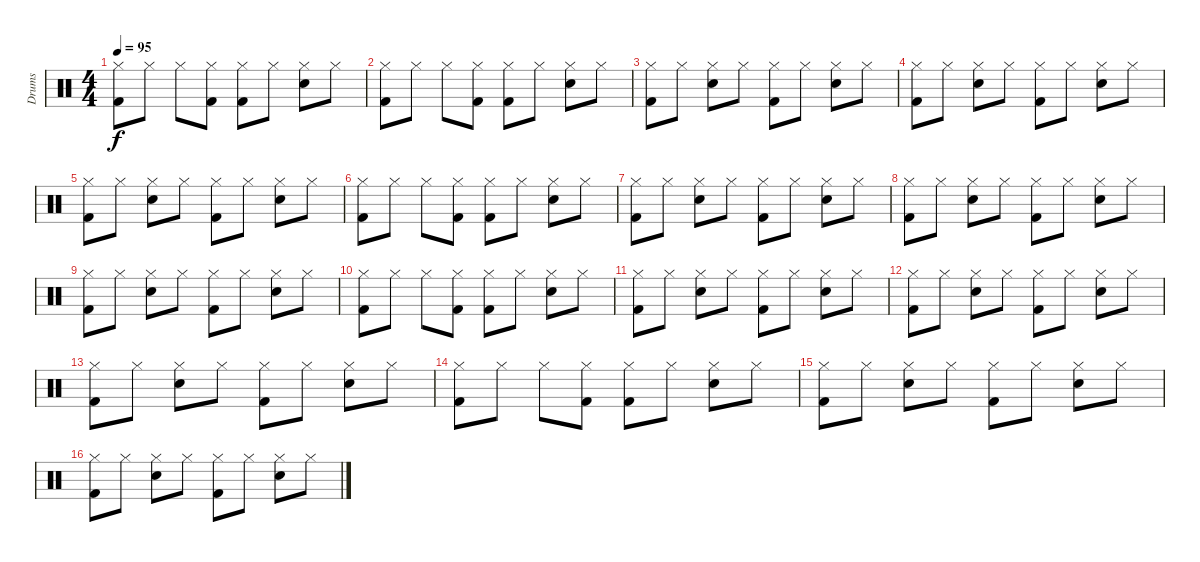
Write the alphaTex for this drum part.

\track ("Drums" "Drums") {instrument percussion}
\staff {score}
\articulation defaults
\ts (4 4)
\tempo 95
\clef neutral
\ks c
("Kick (hit) 2" "Hi-Hat (closed)").8{dy f} "Hi-Hat (closed)".8 "Hi-Hat (closed)".8 ("Kick (hit) 2" "Hi-Hat (closed)").8 ("Kick (hit) 2" "Hi-Hat (closed)").8 "Hi-Hat (closed)".8 ("Snare (hit) 2" "Hi-Hat (closed)").8 "Hi-Hat (closed)".8 |
("Kick (hit) 2" "Hi-Hat (closed)").8 "Hi-Hat (closed)".8 "Hi-Hat (closed)".8 ("Kick (hit) 2" "Hi-Hat (closed)").8 ("Kick (hit) 2" "Hi-Hat (closed)").8 "Hi-Hat (closed)".8 ("Snare (hit) 2" "Hi-Hat (closed)").8 "Hi-Hat (closed)".8 |
("Kick (hit) 2" "Hi-Hat (closed)").8 "Hi-Hat (closed)".8 ("Snare (hit) 2" "Hi-Hat (closed)").8 "Hi-Hat (closed)".8 ("Kick (hit) 2" "Hi-Hat (closed)").8 "Hi-Hat (closed)".8 ("Snare (hit) 2" "Hi-Hat (closed)").8 "Hi-Hat (closed)".8 |
("Kick (hit) 2" "Hi-Hat (closed)").8 "Hi-Hat (closed)".8 ("Snare (hit) 2" "Hi-Hat (closed)").8 "Hi-Hat (closed)".8 ("Kick (hit) 2" "Hi-Hat (closed)").8 "Hi-Hat (closed)".8 ("Snare (hit) 2" "Hi-Hat (closed)").8 "Hi-Hat (closed)".8 |
("Kick (hit) 2" "Hi-Hat (closed)").8 "Hi-Hat (closed)".8 ("Snare (hit) 2" "Hi-Hat (closed)").8 "Hi-Hat (closed)".8 ("Kick (hit) 2" "Hi-Hat (closed)").8 "Hi-Hat (closed)".8 ("Snare (hit) 2" "Hi-Hat (closed)").8 "Hi-Hat (closed)".8 |
("Kick (hit) 2" "Hi-Hat (closed)").8 "Hi-Hat (closed)".8 "Hi-Hat (closed)".8 ("Kick (hit) 2" "Hi-Hat (closed)").8 ("Kick (hit) 2" "Hi-Hat (closed)").8 "Hi-Hat (closed)".8 ("Snare (hit) 2" "Hi-Hat (closed)").8 "Hi-Hat (closed)".8 |
("Kick (hit) 2" "Hi-Hat (closed)").8 "Hi-Hat (closed)".8 ("Snare (hit) 2" "Hi-Hat (closed)").8 "Hi-Hat (closed)".8 ("Kick (hit) 2" "Hi-Hat (closed)").8 "Hi-Hat (closed)".8 ("Snare (hit) 2" "Hi-Hat (closed)").8 "Hi-Hat (closed)".8 |
("Kick (hit) 2" "Hi-Hat (closed)").8 "Hi-Hat (closed)".8 ("Snare (hit) 2" "Hi-Hat (closed)").8 "Hi-Hat (closed)".8 ("Kick (hit) 2" "Hi-Hat (closed)").8 "Hi-Hat (closed)".8 ("Snare (hit) 2" "Hi-Hat (closed)").8 "Hi-Hat (closed)".8 |
("Kick (hit) 2" "Hi-Hat (closed)").8 "Hi-Hat (closed)".8 ("Snare (hit) 2" "Hi-Hat (closed)").8 "Hi-Hat (closed)".8 ("Kick (hit) 2" "Hi-Hat (closed)").8 "Hi-Hat (closed)".8 ("Snare (hit) 2" "Hi-Hat (closed)").8 "Hi-Hat (closed)".8 |
("Kick (hit) 2" "Hi-Hat (closed)").8 "Hi-Hat (closed)".8 "Hi-Hat (closed)".8 ("Kick (hit) 2" "Hi-Hat (closed)").8 ("Kick (hit) 2" "Hi-Hat (closed)").8 "Hi-Hat (closed)".8 ("Snare (hit) 2" "Hi-Hat (closed)").8 "Hi-Hat (closed)".8 |
("Kick (hit) 2" "Hi-Hat (closed)").8 "Hi-Hat (closed)".8 ("Snare (hit) 2" "Hi-Hat (closed)").8 "Hi-Hat (closed)".8 ("Kick (hit) 2" "Hi-Hat (closed)").8 "Hi-Hat (closed)".8 ("Snare (hit) 2" "Hi-Hat (closed)").8 "Hi-Hat (closed)".8 |
("Kick (hit) 2" "Hi-Hat (closed)").8 "Hi-Hat (closed)".8 ("Snare (hit) 2" "Hi-Hat (closed)").8 "Hi-Hat (closed)".8 ("Kick (hit) 2" "Hi-Hat (closed)").8 "Hi-Hat (closed)".8 ("Snare (hit) 2" "Hi-Hat (closed)").8 "Hi-Hat (closed)".8 |
("Kick (hit) 2" "Hi-Hat (closed)").8 "Hi-Hat (closed)".8 ("Snare (hit) 2" "Hi-Hat (closed)").8 "Hi-Hat (closed)".8 ("Kick (hit) 2" "Hi-Hat (closed)").8 "Hi-Hat (closed)".8 ("Snare (hit) 2" "Hi-Hat (closed)").8 "Hi-Hat (closed)".8 |
("Kick (hit) 2" "Hi-Hat (closed)").8 "Hi-Hat (closed)".8 "Hi-Hat (closed)".8 ("Kick (hit) 2" "Hi-Hat (closed)").8 ("Kick (hit) 2" "Hi-Hat (closed)").8 "Hi-Hat (closed)".8 ("Snare (hit) 2" "Hi-Hat (closed)").8 "Hi-Hat (closed)".8 |
("Kick (hit) 2" "Hi-Hat (closed)").8 "Hi-Hat (closed)".8 ("Snare (hit) 2" "Hi-Hat (closed)").8 "Hi-Hat (closed)".8 ("Kick (hit) 2" "Hi-Hat (closed)").8 "Hi-Hat (closed)".8 ("Snare (hit) 2" "Hi-Hat (closed)").8 "Hi-Hat (closed)".8 |
("Kick (hit) 2" "Hi-Hat (closed)").8 "Hi-Hat (closed)".8 ("Snare (hit) 2" "Hi-Hat (closed)").8 "Hi-Hat (closed)".8 ("Kick (hit) 2" "Hi-Hat (closed)").8 "Hi-Hat (closed)".8 ("Snare (hit) 2" "Hi-Hat (closed)").8 "Hi-Hat (closed)".8
